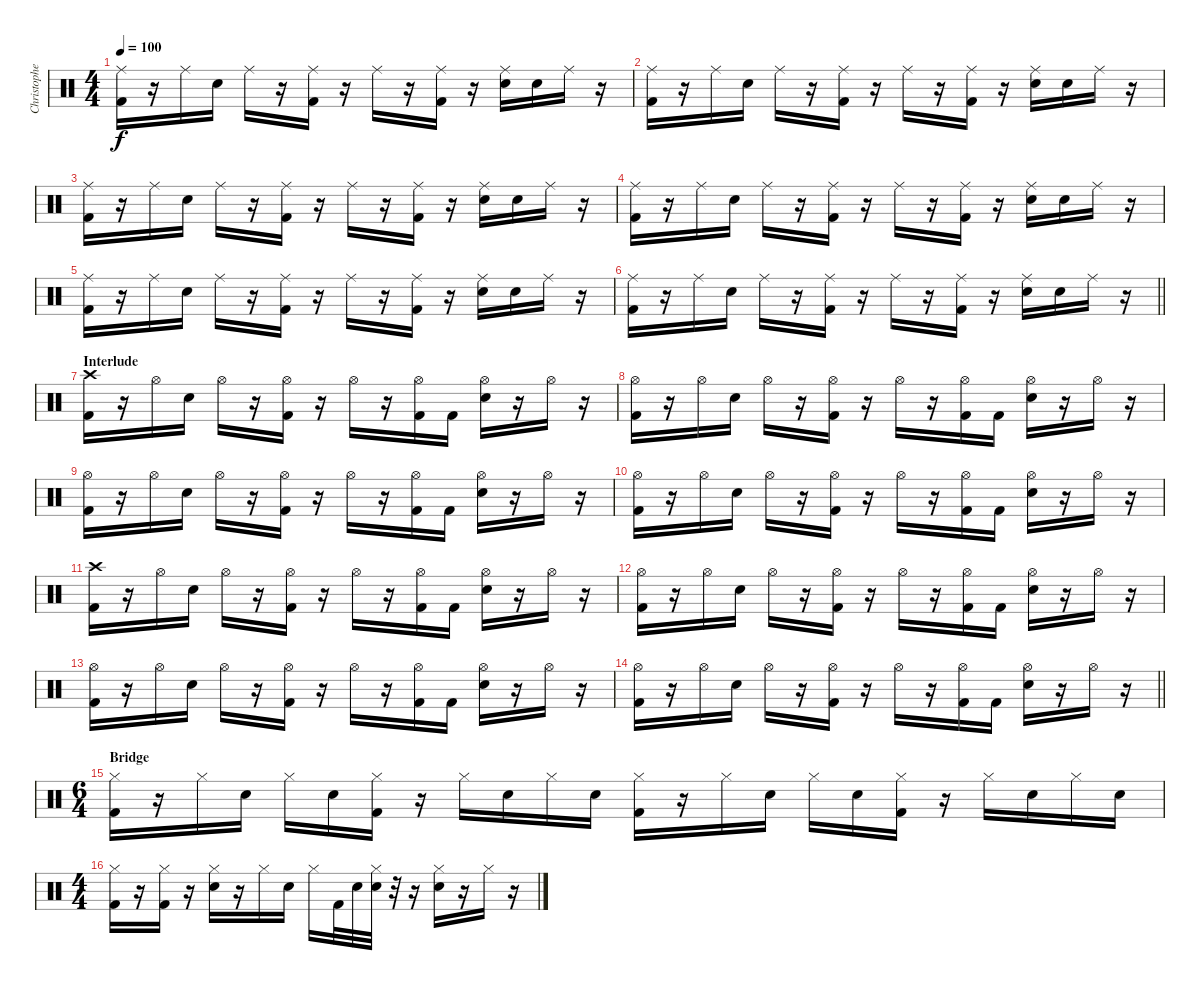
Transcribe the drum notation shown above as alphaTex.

\track ("Christopher - Drums" "Christophe") {instrument percussion}
\staff {score}
\articulation defaults
\ts (4 4)
\tempo 100
\clef neutral
\ks c
("Ride (middle)" "Kick (hit) 2").16{dy f} r.16 "Ride (middle)".16 "Electric Snare (hit)".16 "Ride (middle)".16 r.16 ("Ride (middle)" "Kick (hit) 2").16 r.16 "Ride (middle)".16 r.16 ("Ride (middle)" "Kick (hit) 2").16 r.16 ("Ride (middle)" "Electric Snare (hit)").16 "Electric Snare (hit)".16 "Ride (middle)".16 r.16 |
("Ride (middle)" "Kick (hit) 2").16 r.16 "Ride (middle)".16 "Electric Snare (hit)".16 "Ride (middle)".16 r.16 ("Ride (middle)" "Kick (hit) 2").16 r.16 "Ride (middle)".16 r.16 ("Ride (middle)" "Kick (hit) 2").16 r.16 ("Ride (middle)" "Electric Snare (hit)").16 "Electric Snare (hit)".16 "Ride (middle)".16 r.16 |
("Ride (middle)" "Kick (hit) 2").16 r.16 "Ride (middle)".16 "Electric Snare (hit)".16 "Ride (middle)".16 r.16 ("Ride (middle)" "Kick (hit) 2").16 r.16 "Ride (middle)".16 r.16 ("Ride (middle)" "Kick (hit) 2").16 r.16 ("Ride (middle)" "Electric Snare (hit)").16 "Electric Snare (hit)".16 "Ride (middle)".16 r.16 |
("Ride (middle)" "Kick (hit) 2").16 r.16 "Ride (middle)".16 "Electric Snare (hit)".16 "Ride (middle)".16 r.16 ("Ride (middle)" "Kick (hit) 2").16 r.16 "Ride (middle)".16 r.16 ("Ride (middle)" "Kick (hit) 2").16 r.16 ("Ride (middle)" "Electric Snare (hit)").16 "Electric Snare (hit)".16 "Ride (middle)".16 r.16 |
("Ride (middle)" "Kick (hit) 2").16 r.16 "Ride (middle)".16 "Electric Snare (hit)".16 "Ride (middle)".16 r.16 ("Ride (middle)" "Kick (hit) 2").16 r.16 "Ride (middle)".16 r.16 ("Ride (middle)" "Kick (hit) 2").16 r.16 ("Ride (middle)" "Electric Snare (hit)").16 "Electric Snare (hit)".16 "Ride (middle)".16 r.16 |
\barLineRight lightlight
("Ride (middle)" "Kick (hit) 2").16 r.16 "Ride (middle)".16 "Electric Snare (hit)".16 "Ride (middle)".16 r.16 ("Ride (middle)" "Kick (hit) 2").16 r.16 "Ride (middle)".16 r.16 ("Ride (middle)" "Kick (hit) 2").16 r.16 ("Ride (middle)" "Electric Snare (hit)").16 "Electric Snare (hit)".16 "Ride (middle)".16 r.16 |
\section ("" "Interlude")
("Crash high (hit)" "Kick (hit) 2").16 r.16 "Hi-Hat (open)".16 "Electric Snare (hit)".16 "Hi-Hat (open)".16 r.16 ("Hi-Hat (open)" "Kick (hit) 2").16 r.16 "Hi-Hat (open)".16 r.16 ("Hi-Hat (open)" "Kick (hit) 2").16 "Kick (hit) 2".16 ("Hi-Hat (open)" "Electric Snare (hit)").16 r.16 "Hi-Hat (open)".16 r.16 |
("Hi-Hat (open)" "Kick (hit) 2").16 r.16 "Hi-Hat (open)".16 "Electric Snare (hit)".16 "Hi-Hat (open)".16 r.16 ("Hi-Hat (open)" "Kick (hit) 2").16 r.16 "Hi-Hat (open)".16 r.16 ("Hi-Hat (open)" "Kick (hit) 2").16 "Kick (hit) 2".16 ("Hi-Hat (open)" "Electric Snare (hit)").16 r.16 "Hi-Hat (open)".16 r.16 |
("Hi-Hat (open)" "Kick (hit) 2").16 r.16 "Hi-Hat (open)".16 "Electric Snare (hit)".16 "Hi-Hat (open)".16 r.16 ("Hi-Hat (open)" "Kick (hit) 2").16 r.16 "Hi-Hat (open)".16 r.16 ("Hi-Hat (open)" "Kick (hit) 2").16 "Kick (hit) 2".16 ("Hi-Hat (open)" "Electric Snare (hit)").16 r.16 "Hi-Hat (open)".16 r.16 |
("Hi-Hat (open)" "Kick (hit) 2").16 r.16 "Hi-Hat (open)".16 "Electric Snare (hit)".16 "Hi-Hat (open)".16 r.16 ("Hi-Hat (open)" "Kick (hit) 2").16 r.16 "Hi-Hat (open)".16 r.16 ("Hi-Hat (open)" "Kick (hit) 2").16 "Kick (hit) 2".16 ("Hi-Hat (open)" "Electric Snare (hit)").16 r.16 "Hi-Hat (open)".16 r.16 |
("Crash high (hit)" "Kick (hit) 2").16 r.16 "Hi-Hat (open)".16 "Electric Snare (hit)".16 "Hi-Hat (open)".16 r.16 ("Hi-Hat (open)" "Kick (hit) 2").16 r.16 "Hi-Hat (open)".16 r.16 ("Hi-Hat (open)" "Kick (hit) 2").16 "Kick (hit) 2".16 ("Hi-Hat (open)" "Electric Snare (hit)").16 r.16 "Hi-Hat (open)".16 r.16 |
("Hi-Hat (open)" "Kick (hit) 2").16 r.16 "Hi-Hat (open)".16 "Electric Snare (hit)".16 "Hi-Hat (open)".16 r.16 ("Hi-Hat (open)" "Kick (hit) 2").16 r.16 "Hi-Hat (open)".16 r.16 ("Hi-Hat (open)" "Kick (hit) 2").16 "Kick (hit) 2".16 ("Hi-Hat (open)" "Electric Snare (hit)").16 r.16 "Hi-Hat (open)".16 r.16 |
("Hi-Hat (open)" "Kick (hit) 2").16 r.16 "Hi-Hat (open)".16 "Electric Snare (hit)".16 "Hi-Hat (open)".16 r.16 ("Hi-Hat (open)" "Kick (hit) 2").16 r.16 "Hi-Hat (open)".16 r.16 ("Hi-Hat (open)" "Kick (hit) 2").16 "Kick (hit) 2".16 ("Hi-Hat (open)" "Electric Snare (hit)").16 r.16 "Hi-Hat (open)".16 r.16 |
\barLineRight lightlight
("Hi-Hat (open)" "Kick (hit) 2").16 r.16 "Hi-Hat (open)".16 "Electric Snare (hit)".16 "Hi-Hat (open)".16 r.16 ("Hi-Hat (open)" "Kick (hit) 2").16 r.16 "Hi-Hat (open)".16 r.16 ("Hi-Hat (open)" "Kick (hit) 2").16 "Kick (hit) 2".16 ("Hi-Hat (open)" "Electric Snare (hit)").16 r.16 "Hi-Hat (open)".16 r.16 |
\ts (6 4)
\section ("" "Bridge")
("Hi-Hat (closed)" "Kick (hit) 2").16 r.16 "Hi-Hat (closed)".16 "Electric Snare (hit)".16 "Hi-Hat (closed)".16 "Electric Snare (hit)".16 ("Hi-Hat (closed)" "Kick (hit) 2").16 r.16 "Hi-Hat (closed)".16 "Electric Snare (hit)".16 "Hi-Hat (closed)".16 "Electric Snare (hit)".16 ("Hi-Hat (closed)" "Kick (hit) 2").16 r.16 "Hi-Hat (closed)".16 "Electric Snare (hit)".16 "Hi-Hat (closed)".16 "Electric Snare (hit)".16 ("Hi-Hat (closed)" "Kick (hit) 2").16 r.16 "Hi-Hat (closed)".16 "Electric Snare (hit)".16 "Hi-Hat (closed)".16 "Electric Snare (hit)".16 |
\ts (4 4)
("Hi-Hat (closed)" "Kick (hit) 2").16 r.16 ("Hi-Hat (closed)" "Kick (hit) 2").16 r.16 ("Hi-Hat (closed)" "Electric Snare (hit)").16 r.16 "Hi-Hat (closed)".16 "Electric Snare (hit)".16 "Hi-Hat (closed)".16 "Kick (hit) 2".32 "Electric Snare (hit)".32 ("Hi-Hat (closed)" "Electric Snare (hit)").32 r.32 r.16 ("Hi-Hat (closed)" "Electric Snare (hit)").16 r.16 "Hi-Hat (closed)".16 r.16
